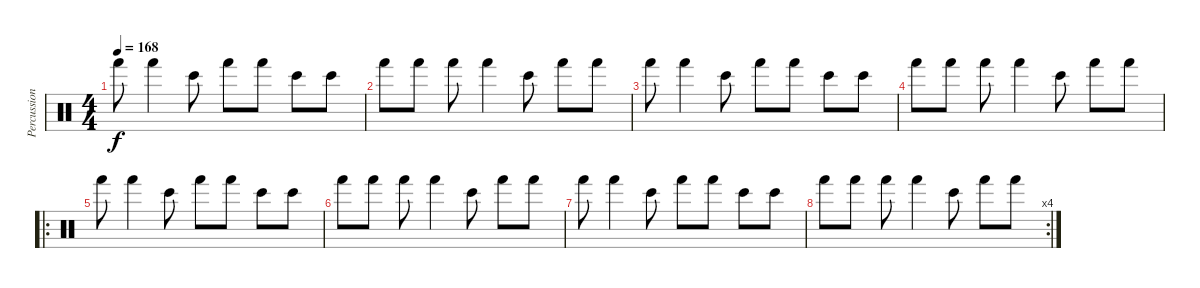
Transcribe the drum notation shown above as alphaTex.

\track ("Percussions" "Percussion") {instrument percussion}
\staff {score}
\articulation defaults
\ts (4 4)
\tempo 168
\clef neutral
\ks c "Hand (hit)".8{dy f} "Hand (hit)".4 "Bongo High (hit)".8 "Hand (hit)".8 "Hand (hit)".8 "Bongo High (hit)".8 "Bongo High (hit)".8
|
"Hand (hit)".8 "Hand (hit)".8 "Hand (hit)".8 "Hand (hit)".4 "Bongo High (hit)".8 "Hand (hit)".8 "Hand (hit)".8 |
"Hand (hit)".8 "Hand (hit)".4 "Bongo High (hit)".8 "Hand (hit)".8 "Hand (hit)".8 "Bongo High (hit)".8 "Bongo High (hit)".8 |
"Hand (hit)".8 "Hand (hit)".8 "Hand (hit)".8 "Hand (hit)".4 "Bongo High (hit)".8 "Hand (hit)".8 "Hand (hit)".8 |
\ro "Hand (hit)".8 "Hand (hit)".4 "Bongo High (hit)".8 "Hand (hit)".8 "Hand (hit)".8 "Bongo High (hit)".8 "Bongo High (hit)".8
|
"Hand (hit)".8 "Hand (hit)".8 "Hand (hit)".8 "Hand (hit)".4 "Bongo High (hit)".8 "Hand (hit)".8 "Hand (hit)".8 |
"Hand (hit)".8 "Hand (hit)".4 "Bongo High (hit)".8 "Hand (hit)".8 "Hand (hit)".8 "Bongo High (hit)".8 "Bongo High (hit)".8 |
\rc 4 "Hand (hit)".8 "Hand (hit)".8 "Hand (hit)".8 "Hand (hit)".4 "Bongo High (hit)".8 "Hand (hit)".8 "Hand (hit)".8
